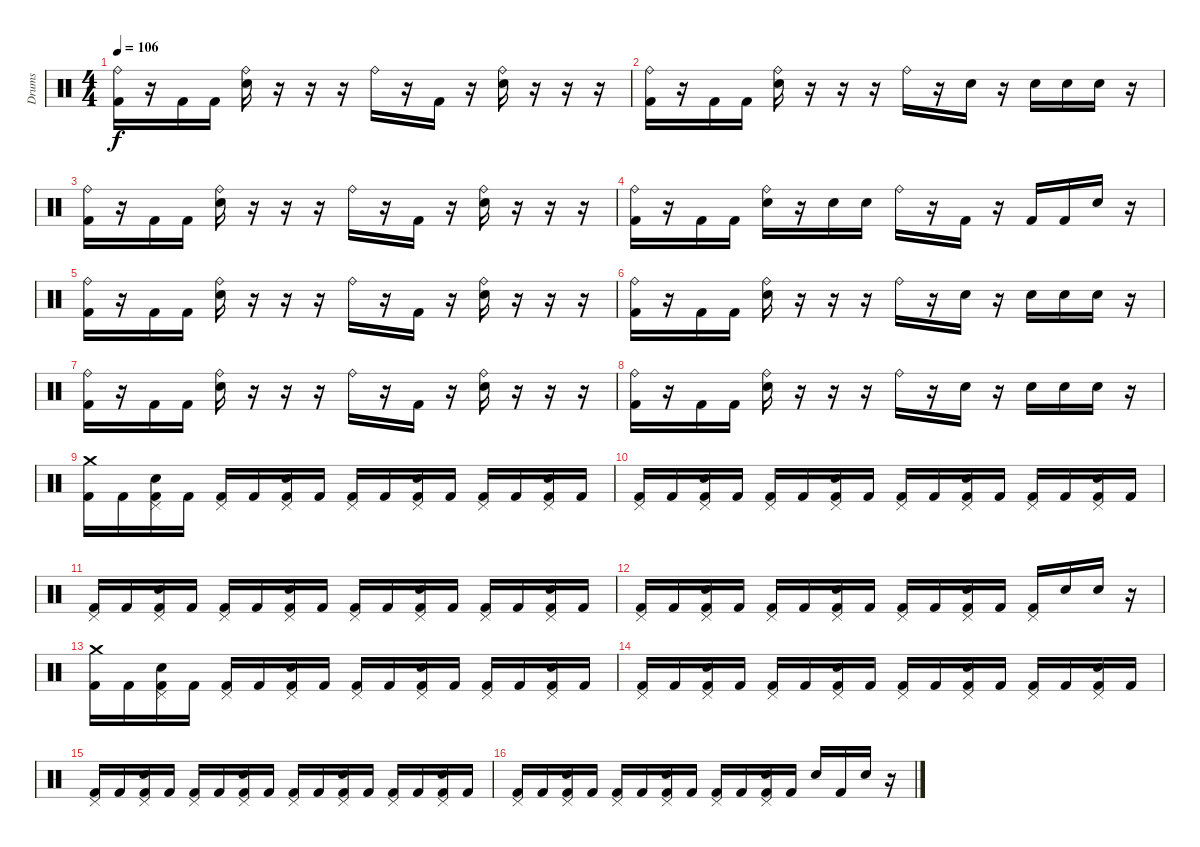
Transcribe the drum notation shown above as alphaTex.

\track ("Drums" "Drums") {instrument percussion}
\staff {score}
\articulation defaults
\ts (4 4)
\tempo 106
\clef neutral
\ks c
("Kick (hit) 2" "Ride (bell)").16{dy f} r.16 "Kick (hit) 2".16 "Kick (hit) 2".16 ("Ride (bell)" "Electric Snare (hit)").16 r.16 r.16 r.16 "Ride (bell)".16 r.16 "Kick (hit) 2".16 r.16 ("Ride (bell)" "Electric Snare (hit)").16 r.16 r.16 r.16 |
("Kick (hit) 2" "Ride (bell)").16 r.16 "Kick (hit) 2".16 "Kick (hit) 2".16 ("Ride (bell)" "Electric Snare (hit)").16 r.16 r.16 r.16 "Ride (bell)".16 r.16 "Electric Snare (hit)".16 r.16 "Electric Snare (hit)".16 "Electric Snare (hit)".16 "Electric Snare (hit)".16 r.16 |
("Kick (hit) 2" "Ride (bell)").16 r.16 "Kick (hit) 2".16 "Kick (hit) 2".16 ("Ride (bell)" "Electric Snare (hit)").16 r.16 r.16 r.16 "Ride (bell)".16 r.16 "Kick (hit) 2".16 r.16 ("Ride (bell)" "Electric Snare (hit)").16 r.16 r.16 r.16 |
("Kick (hit) 2" "Ride (bell)").16 r.16 "Kick (hit) 2".16 "Kick (hit) 2".16 ("Ride (bell)" "Electric Snare (hit)").16 r.16 "Electric Snare (hit)".16 "Electric Snare (hit)".16 "Ride (bell)".16 r.16 "Kick (hit) 2".16 r.16 "Kick (hit) 2".16 "Kick (hit) 2".16 "Electric Snare (hit)".16 r.16 |
("Kick (hit) 2" "Ride (bell)").16 r.16 "Kick (hit) 2".16 "Kick (hit) 2".16 ("Ride (bell)" "Electric Snare (hit)").16 r.16 r.16 r.16 "Ride (bell)".16 r.16 "Kick (hit) 2".16 r.16 ("Ride (bell)" "Electric Snare (hit)").16 r.16 r.16 r.16 |
("Kick (hit) 2" "Ride (bell)").16 r.16 "Kick (hit) 2".16 "Kick (hit) 2".16 ("Ride (bell)" "Electric Snare (hit)").16 r.16 r.16 r.16 "Ride (bell)".16 r.16 "Electric Snare (hit)".16 r.16 "Electric Snare (hit)".16 "Electric Snare (hit)".16 "Electric Snare (hit)".16 r.16 |
("Kick (hit) 2" "Ride (bell)").16 r.16 "Kick (hit) 2".16 "Kick (hit) 2".16 ("Ride (bell)" "Electric Snare (hit)").16 r.16 r.16 r.16 "Ride (bell)".16 r.16 "Kick (hit) 2".16 r.16 ("Ride (bell)" "Electric Snare (hit)").16 r.16 r.16 r.16 |
("Kick (hit) 2" "Ride (bell)").16 r.16 "Kick (hit) 2".16 "Kick (hit) 2".16 ("Ride (bell)" "Electric Snare (hit)").16 r.16 r.16 r.16 "Ride (bell)".16 r.16 "Electric Snare (hit)".16 r.16 "Electric Snare (hit)".16 "Electric Snare (hit)".16 "Electric Snare (hit)".16 r.16 |
("Kick (hit) 2" "Crash medium (hit)").16 "Kick (hit) 2".16 ("Kick (hit) 2" "Pedal Hi-Hat (hit)" "Electric Snare (hit)").16 "Kick (hit) 2".16 ("Kick (hit) 2" "Pedal Hi-Hat (hit)").16 "Kick (hit) 2".16 ("Kick (hit) 2" "Pedal Hi-Hat (hit)" "Electric Snare (hit)").16 "Kick (hit) 2".16 ("Kick (hit) 2" "Pedal Hi-Hat (hit)").16 "Kick (hit) 2".16 ("Kick (hit) 2" "Pedal Hi-Hat (hit)" "Electric Snare (hit)").16 "Kick (hit) 2".16 ("Kick (hit) 2" "Pedal Hi-Hat (hit)").16 "Kick (hit) 2".16 ("Kick (hit) 2" "Pedal Hi-Hat (hit)" "Electric Snare (hit)").16 "Kick (hit) 2".16 |
("Kick (hit) 2" "Pedal Hi-Hat (hit)").16 "Kick (hit) 2".16 ("Kick (hit) 2" "Pedal Hi-Hat (hit)" "Electric Snare (hit)").16 "Kick (hit) 2".16 ("Kick (hit) 2" "Pedal Hi-Hat (hit)").16 "Kick (hit) 2".16 ("Kick (hit) 2" "Pedal Hi-Hat (hit)" "Electric Snare (hit)").16 "Kick (hit) 2".16 ("Kick (hit) 2" "Pedal Hi-Hat (hit)").16 "Kick (hit) 2".16 ("Kick (hit) 2" "Pedal Hi-Hat (hit)" "Electric Snare (hit)").16 "Kick (hit) 2".16 ("Kick (hit) 2" "Pedal Hi-Hat (hit)").16 "Kick (hit) 2".16 ("Kick (hit) 2" "Pedal Hi-Hat (hit)" "Electric Snare (hit)").16 "Kick (hit) 2".16 |
("Kick (hit) 2" "Pedal Hi-Hat (hit)").16 "Kick (hit) 2".16 ("Kick (hit) 2" "Pedal Hi-Hat (hit)" "Electric Snare (hit)").16 "Kick (hit) 2".16 ("Kick (hit) 2" "Pedal Hi-Hat (hit)").16 "Kick (hit) 2".16 ("Kick (hit) 2" "Pedal Hi-Hat (hit)" "Electric Snare (hit)").16 "Kick (hit) 2".16 ("Kick (hit) 2" "Pedal Hi-Hat (hit)").16 "Kick (hit) 2".16 ("Kick (hit) 2" "Pedal Hi-Hat (hit)" "Electric Snare (hit)").16 "Kick (hit) 2".16 ("Kick (hit) 2" "Pedal Hi-Hat (hit)").16 "Kick (hit) 2".16 ("Kick (hit) 2" "Pedal Hi-Hat (hit)" "Electric Snare (hit)").16 "Kick (hit) 2".16 |
("Kick (hit) 2" "Pedal Hi-Hat (hit)").16 "Kick (hit) 2".16 ("Kick (hit) 2" "Pedal Hi-Hat (hit)" "Electric Snare (hit)").16 "Kick (hit) 2".16 ("Kick (hit) 2" "Pedal Hi-Hat (hit)").16 "Kick (hit) 2".16 ("Kick (hit) 2" "Pedal Hi-Hat (hit)" "Electric Snare (hit)").16 "Kick (hit) 2".16 ("Kick (hit) 2" "Pedal Hi-Hat (hit)").16 "Kick (hit) 2".16 ("Kick (hit) 2" "Pedal Hi-Hat (hit)" "Electric Snare (hit)").16 "Kick (hit) 2".16 ("Kick (hit) 2" "Pedal Hi-Hat (hit)").16 "Electric Snare (hit)".16 "Electric Snare (hit)".16 r.16 |
("Kick (hit) 2" "Crash medium (hit)").16 "Kick (hit) 2".16 ("Kick (hit) 2" "Pedal Hi-Hat (hit)" "Electric Snare (hit)").16 "Kick (hit) 2".16 ("Kick (hit) 2" "Pedal Hi-Hat (hit)").16 "Kick (hit) 2".16 ("Kick (hit) 2" "Pedal Hi-Hat (hit)" "Electric Snare (hit)").16 "Kick (hit) 2".16 ("Kick (hit) 2" "Pedal Hi-Hat (hit)").16 "Kick (hit) 2".16 ("Kick (hit) 2" "Pedal Hi-Hat (hit)" "Electric Snare (hit)").16 "Kick (hit) 2".16 ("Kick (hit) 2" "Pedal Hi-Hat (hit)").16 "Kick (hit) 2".16 ("Kick (hit) 2" "Pedal Hi-Hat (hit)" "Electric Snare (hit)").16 "Kick (hit) 2".16 |
("Kick (hit) 2" "Pedal Hi-Hat (hit)").16 "Kick (hit) 2".16 ("Kick (hit) 2" "Pedal Hi-Hat (hit)" "Electric Snare (hit)").16 "Kick (hit) 2".16 ("Kick (hit) 2" "Pedal Hi-Hat (hit)").16 "Kick (hit) 2".16 ("Kick (hit) 2" "Pedal Hi-Hat (hit)" "Electric Snare (hit)").16 "Kick (hit) 2".16 ("Kick (hit) 2" "Pedal Hi-Hat (hit)").16 "Kick (hit) 2".16 ("Kick (hit) 2" "Pedal Hi-Hat (hit)" "Electric Snare (hit)").16 "Kick (hit) 2".16 ("Kick (hit) 2" "Pedal Hi-Hat (hit)").16 "Kick (hit) 2".16 ("Kick (hit) 2" "Pedal Hi-Hat (hit)" "Electric Snare (hit)").16 "Kick (hit) 2".16 |
("Kick (hit) 2" "Pedal Hi-Hat (hit)").16 "Kick (hit) 2".16 ("Kick (hit) 2" "Pedal Hi-Hat (hit)" "Electric Snare (hit)").16 "Kick (hit) 2".16 ("Kick (hit) 2" "Pedal Hi-Hat (hit)").16 "Kick (hit) 2".16 ("Kick (hit) 2" "Pedal Hi-Hat (hit)" "Electric Snare (hit)").16 "Kick (hit) 2".16 ("Kick (hit) 2" "Pedal Hi-Hat (hit)").16 "Kick (hit) 2".16 ("Kick (hit) 2" "Pedal Hi-Hat (hit)" "Electric Snare (hit)").16 "Kick (hit) 2".16 ("Kick (hit) 2" "Pedal Hi-Hat (hit)").16 "Kick (hit) 2".16 ("Kick (hit) 2" "Pedal Hi-Hat (hit)" "Electric Snare (hit)").16 "Kick (hit) 2".16 |
("Kick (hit) 2" "Pedal Hi-Hat (hit)").16 "Kick (hit) 2".16 ("Kick (hit) 2" "Pedal Hi-Hat (hit)" "Electric Snare (hit)").16 "Kick (hit) 2".16 ("Kick (hit) 2" "Pedal Hi-Hat (hit)").16 "Kick (hit) 2".16 ("Kick (hit) 2" "Pedal Hi-Hat (hit)" "Electric Snare (hit)").16 "Kick (hit) 2".16 ("Kick (hit) 2" "Pedal Hi-Hat (hit)").16 "Kick (hit) 2".16 ("Kick (hit) 2" "Pedal Hi-Hat (hit)" "Electric Snare (hit)").16 "Kick (hit) 2".16 "Electric Snare (hit)".16 "Kick (hit) 2".16 "Electric Snare (hit)".16 r.16
